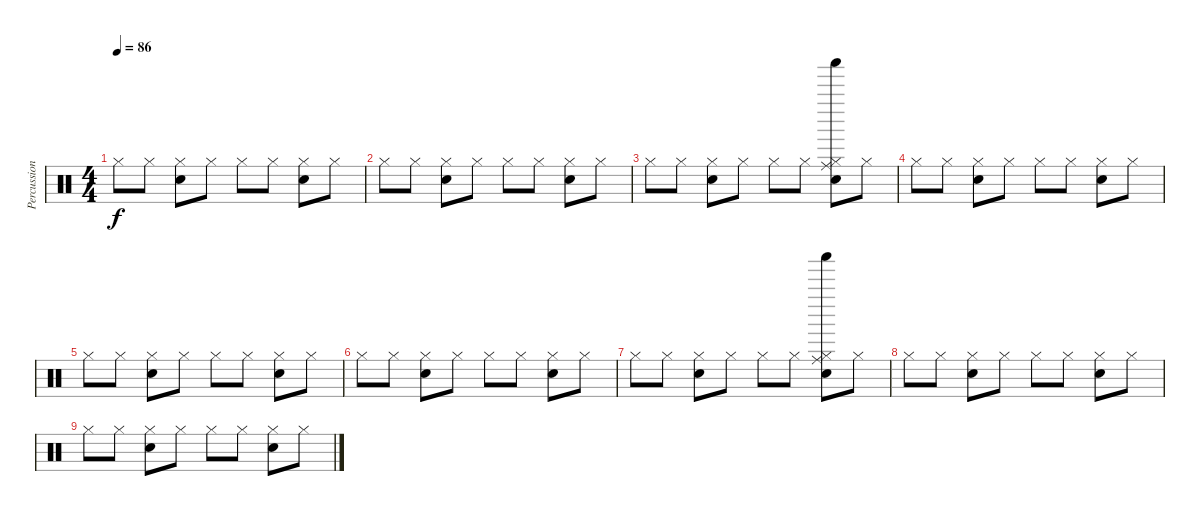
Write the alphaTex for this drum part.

\track ("Percussion" "Percussion") {instrument percussion}
\staff {score}
\articulation defaults
\ts (4 4)
\tempo 86
\clef neutral
\ks c "Hi-Hat (closed)".8{dy f} "Hi-Hat (closed)".8
("Electric Snare (hit)" "Hi-Hat (closed)").8 "Hi-Hat (closed)".8 "Hi-Hat (closed)".8 "Hi-Hat (closed)".8 ("Electric Snare (hit)" "Hi-Hat (closed)").8 "Hi-Hat (closed)".8 |
"Hi-Hat (closed)".8 "Hi-Hat (closed)".8 ("Electric Snare (hit)" "Hi-Hat (closed)").8 "Hi-Hat (closed)".8 "Hi-Hat (closed)".8 "Hi-Hat (closed)".8 ("Electric Snare (hit)" "Hi-Hat (closed)").8 "Hi-Hat (closed)".8 |
"Hi-Hat (closed)".8 "Hi-Hat (closed)".8 ("Electric Snare (hit)" "Hi-Hat (closed)").8 "Hi-Hat (closed)".8 "Hi-Hat (closed)".8 "Hi-Hat (closed)".8 ("Electric Snare (hit)" "Shaker (hit)" "Ride (middle)" "Hi-Hat (closed)").8 "Hi-Hat (closed)".8 |
"Hi-Hat (closed)".8 "Hi-Hat (closed)".8 ("Electric Snare (hit)" "Hi-Hat (closed)").8 "Hi-Hat (closed)".8 "Hi-Hat (closed)".8 "Hi-Hat (closed)".8 ("Electric Snare (hit)" "Hi-Hat (closed)").8 "Hi-Hat (closed)".8 |
"Hi-Hat (closed)".8 "Hi-Hat (closed)".8 ("Electric Snare (hit)" "Hi-Hat (closed)").8 "Hi-Hat (closed)".8 "Hi-Hat (closed)".8 "Hi-Hat (closed)".8 ("Electric Snare (hit)" "Hi-Hat (closed)").8 "Hi-Hat (closed)".8 |
"Hi-Hat (closed)".8 "Hi-Hat (closed)".8 ("Electric Snare (hit)" "Hi-Hat (closed)").8 "Hi-Hat (closed)".8 "Hi-Hat (closed)".8 "Hi-Hat (closed)".8 ("Electric Snare (hit)" "Hi-Hat (closed)").8 "Hi-Hat (closed)".8 |
"Hi-Hat (closed)".8 "Hi-Hat (closed)".8 ("Electric Snare (hit)" "Hi-Hat (closed)").8 "Hi-Hat (closed)".8 "Hi-Hat (closed)".8 "Hi-Hat (closed)".8 ("Electric Snare (hit)" "Shaker (hit)" "Ride (middle)" "Hi-Hat (closed)").8 "Hi-Hat (closed)".8 |
"Hi-Hat (closed)".8 "Hi-Hat (closed)".8 ("Electric Snare (hit)" "Hi-Hat (closed)").8 "Hi-Hat (closed)".8 "Hi-Hat (closed)".8 "Hi-Hat (closed)".8 ("Electric Snare (hit)" "Hi-Hat (closed)").8 "Hi-Hat (closed)".8 |
"Hi-Hat (closed)".8 "Hi-Hat (closed)".8 ("Electric Snare (hit)" "Hi-Hat (closed)").8 "Hi-Hat (closed)".8 "Hi-Hat (closed)".8 "Hi-Hat (closed)".8 ("Electric Snare (hit)" "Hi-Hat (closed)").8 "Hi-Hat (closed)".8
